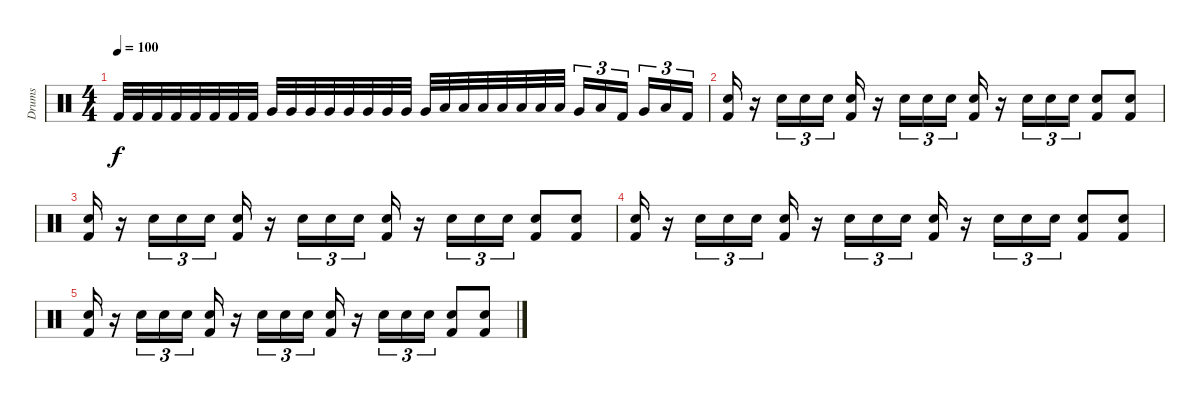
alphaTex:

\track ("Drums" "Drums") {instrument percussion}
\staff {score}
\articulation defaults
\ts (4 4)
\tempo 100
\clef neutral
\ks c "Kick (hit) 2".32{dy f} "Kick (hit) 2".32 "Kick (hit) 2".32 "Kick (hit) 2".32 "Kick (hit) 2".32 "Kick (hit) 2".32 "Kick (hit) 2".32 "Kick (hit) 2".32 "Very Low Tom (hit)".32 "Very Low Tom (hit)".32 "Very Low Tom (hit)".32 "Very Low Tom (hit)".32 "Very Low Tom (hit)".32 "Very Low Tom (hit)".32 "Very Low Tom (hit)".32 "Very Low Tom (hit)".32 "Very Low Tom (hit)".32 "Low Floor Tom (hit)".32 "Low Floor Tom (hit)".32 "Low Floor Tom (hit)".32 "Low Floor Tom (hit)".32 "Low Floor Tom (hit)".32 "Low Floor Tom (hit)".32 "Low Floor Tom (hit)".32 "Very Low Tom (hit)".16{tu (3 2)} "Low Floor Tom (hit)".16{tu (3 2)} "Kick (hit) 2".16{tu (3 2) beam splitsecondary} "Very Low Tom (hit)".16{tu (3 2)} "Low Floor Tom (hit)".16{tu (3 2)} "Kick (hit) 2".16{tu (3 2)}
|
("Kick (hit) 2" "Electric Snare (hit)").16 r.16 "Electric Snare (hit)".16{tu (3 2)} "Electric Snare (hit)".16{tu (3 2)} "Electric Snare (hit)".16{tu (3 2)} ("Kick (hit) 2" "Electric Snare (hit)").16 r.16 "Electric Snare (hit)".16{tu (3 2)} "Electric Snare (hit)".16{tu (3 2)} "Electric Snare (hit)".16{tu (3 2)} ("Kick (hit) 2" "Electric Snare (hit)").16 r.16 "Electric Snare (hit)".16{tu (3 2)} "Electric Snare (hit)".16{tu (3 2)} "Electric Snare (hit)".16{tu (3 2)} ("Kick (hit) 2" "Electric Snare (hit)").8 ("Kick (hit) 2" "Electric Snare (hit)").8 |
("Kick (hit) 2" "Electric Snare (hit)").16 r.16 "Electric Snare (hit)".16{tu (3 2)} "Electric Snare (hit)".16{tu (3 2)} "Electric Snare (hit)".16{tu (3 2)} ("Kick (hit) 2" "Electric Snare (hit)").16 r.16 "Electric Snare (hit)".16{tu (3 2)} "Electric Snare (hit)".16{tu (3 2)} "Electric Snare (hit)".16{tu (3 2)} ("Kick (hit) 2" "Electric Snare (hit)").16 r.16 "Electric Snare (hit)".16{tu (3 2)} "Electric Snare (hit)".16{tu (3 2)} "Electric Snare (hit)".16{tu (3 2)} ("Kick (hit) 2" "Electric Snare (hit)").8 ("Kick (hit) 2" "Electric Snare (hit)").8 |
("Kick (hit) 2" "Electric Snare (hit)").16 r.16 "Electric Snare (hit)".16{tu (3 2)} "Electric Snare (hit)".16{tu (3 2)} "Electric Snare (hit)".16{tu (3 2)} ("Kick (hit) 2" "Electric Snare (hit)").16 r.16 "Electric Snare (hit)".16{tu (3 2)} "Electric Snare (hit)".16{tu (3 2)} "Electric Snare (hit)".16{tu (3 2)} ("Kick (hit) 2" "Electric Snare (hit)").16 r.16 "Electric Snare (hit)".16{tu (3 2)} "Electric Snare (hit)".16{tu (3 2)} "Electric Snare (hit)".16{tu (3 2)} ("Kick (hit) 2" "Electric Snare (hit)").8 ("Kick (hit) 2" "Electric Snare (hit)").8 |
("Kick (hit) 2" "Electric Snare (hit)").16 r.16 "Electric Snare (hit)".16{tu (3 2)} "Electric Snare (hit)".16{tu (3 2)} "Electric Snare (hit)".16{tu (3 2)} ("Kick (hit) 2" "Electric Snare (hit)").16 r.16 "Electric Snare (hit)".16{tu (3 2)} "Electric Snare (hit)".16{tu (3 2)} "Electric Snare (hit)".16{tu (3 2)} ("Kick (hit) 2" "Electric Snare (hit)").16 r.16 "Electric Snare (hit)".16{tu (3 2)} "Electric Snare (hit)".16{tu (3 2)} "Electric Snare (hit)".16{tu (3 2)} ("Kick (hit) 2" "Electric Snare (hit)").8 ("Kick (hit) 2" "Electric Snare (hit)").8
